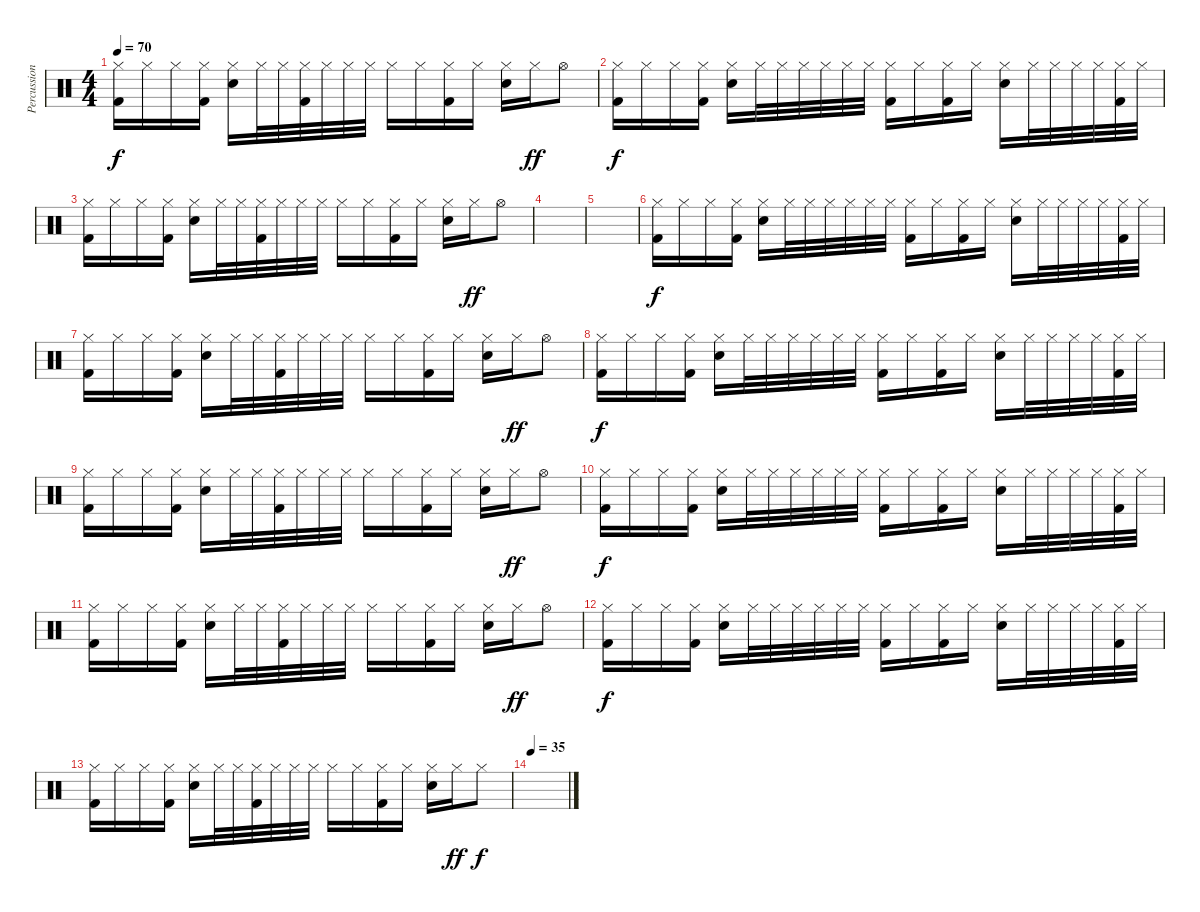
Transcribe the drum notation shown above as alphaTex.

\track ("Percussions" "Percussion") {instrument percussion}
\staff {score}
\articulation defaults
\ts (4 4)
\tempo 70
\clef neutral
\ks c
("Kick (hit) 2" "Hi-Hat (closed)").16{dy f} "Hi-Hat (closed)".16 "Hi-Hat (closed)".16 ("Kick (hit) 2" "Hi-Hat (closed)").16 ("Electric Snare (hit)" "Hi-Hat (closed)").16 "Hi-Hat (closed)".32 "Hi-Hat (closed)".32 ("Kick (hit) 2" "Hi-Hat (closed)").32 "Hi-Hat (closed)".32 "Hi-Hat (closed)".32 "Hi-Hat (closed)".32 "Hi-Hat (closed)".16 "Hi-Hat (closed)".16 ("Kick (hit) 2" "Hi-Hat (closed)").16 "Hi-Hat (closed)".16 ("Electric Snare (hit)" "Hi-Hat (closed)").16 "Hi-Hat (closed)".16{dy ff} "Hi-Hat (open)".8 |
("Kick (hit) 2" "Hi-Hat (closed)").16{dy f} "Hi-Hat (closed)".16 "Hi-Hat (closed)".16 ("Kick (hit) 2" "Hi-Hat (closed)").16 ("Electric Snare (hit)" "Hi-Hat (closed)").16 "Hi-Hat (closed)".32 "Hi-Hat (closed)".32 "Hi-Hat (closed)".32 "Hi-Hat (closed)".32 "Hi-Hat (closed)".32 "Hi-Hat (closed)".32 ("Kick (hit) 2" "Hi-Hat (closed)").16 "Hi-Hat (closed)".16 ("Kick (hit) 2" "Hi-Hat (closed)").16 "Hi-Hat (closed)".16 ("Electric Snare (hit)" "Hi-Hat (closed)").16 "Hi-Hat (closed)".32 "Hi-Hat (closed)".32 "Hi-Hat (closed)".32 "Hi-Hat (closed)".32 ("Kick (hit) 2" "Hi-Hat (closed)").32 "Hi-Hat (closed)".32 |
("Kick (hit) 2" "Hi-Hat (closed)").16 "Hi-Hat (closed)".16 "Hi-Hat (closed)".16 ("Kick (hit) 2" "Hi-Hat (closed)").16 ("Electric Snare (hit)" "Hi-Hat (closed)").16 "Hi-Hat (closed)".32 "Hi-Hat (closed)".32 ("Kick (hit) 2" "Hi-Hat (closed)").32 "Hi-Hat (closed)".32 "Hi-Hat (closed)".32 "Hi-Hat (closed)".32 "Hi-Hat (closed)".16 "Hi-Hat (closed)".16 ("Kick (hit) 2" "Hi-Hat (closed)").16 "Hi-Hat (closed)".16 ("Electric Snare (hit)" "Hi-Hat (closed)").16 "Hi-Hat (closed)".16{dy ff} "Hi-Hat (open)".8 |
\section ("" "")
|
|
\section ("" "")
("Kick (hit) 2" "Hi-Hat (closed)").16{dy f} "Hi-Hat (closed)".16 "Hi-Hat (closed)".16 ("Kick (hit) 2" "Hi-Hat (closed)").16 ("Electric Snare (hit)" "Hi-Hat (closed)").16 "Hi-Hat (closed)".32 "Hi-Hat (closed)".32 "Hi-Hat (closed)".32 "Hi-Hat (closed)".32 "Hi-Hat (closed)".32 "Hi-Hat (closed)".32 ("Kick (hit) 2" "Hi-Hat (closed)").16 "Hi-Hat (closed)".16 ("Kick (hit) 2" "Hi-Hat (closed)").16 "Hi-Hat (closed)".16 ("Electric Snare (hit)" "Hi-Hat (closed)").16 "Hi-Hat (closed)".32 "Hi-Hat (closed)".32 "Hi-Hat (closed)".32 "Hi-Hat (closed)".32 ("Kick (hit) 2" "Hi-Hat (closed)").32 "Hi-Hat (closed)".32 |
("Kick (hit) 2" "Hi-Hat (closed)").16 "Hi-Hat (closed)".16 "Hi-Hat (closed)".16 ("Kick (hit) 2" "Hi-Hat (closed)").16 ("Electric Snare (hit)" "Hi-Hat (closed)").16 "Hi-Hat (closed)".32 "Hi-Hat (closed)".32 ("Kick (hit) 2" "Hi-Hat (closed)").32 "Hi-Hat (closed)".32 "Hi-Hat (closed)".32 "Hi-Hat (closed)".32 "Hi-Hat (closed)".16 "Hi-Hat (closed)".16 ("Kick (hit) 2" "Hi-Hat (closed)").16 "Hi-Hat (closed)".16 ("Electric Snare (hit)" "Hi-Hat (closed)").16 "Hi-Hat (closed)".16{dy ff} "Hi-Hat (open)".8 |
("Kick (hit) 2" "Hi-Hat (closed)").16{dy f} "Hi-Hat (closed)".16 "Hi-Hat (closed)".16 ("Kick (hit) 2" "Hi-Hat (closed)").16 ("Electric Snare (hit)" "Hi-Hat (closed)").16 "Hi-Hat (closed)".32 "Hi-Hat (closed)".32 "Hi-Hat (closed)".32 "Hi-Hat (closed)".32 "Hi-Hat (closed)".32 "Hi-Hat (closed)".32 ("Kick (hit) 2" "Hi-Hat (closed)").16 "Hi-Hat (closed)".16 ("Kick (hit) 2" "Hi-Hat (closed)").16 "Hi-Hat (closed)".16 ("Electric Snare (hit)" "Hi-Hat (closed)").16 "Hi-Hat (closed)".32 "Hi-Hat (closed)".32 "Hi-Hat (closed)".32 "Hi-Hat (closed)".32 ("Kick (hit) 2" "Hi-Hat (closed)").32 "Hi-Hat (closed)".32 |
("Kick (hit) 2" "Hi-Hat (closed)").16 "Hi-Hat (closed)".16 "Hi-Hat (closed)".16 ("Kick (hit) 2" "Hi-Hat (closed)").16 ("Electric Snare (hit)" "Hi-Hat (closed)").16 "Hi-Hat (closed)".32 "Hi-Hat (closed)".32 ("Kick (hit) 2" "Hi-Hat (closed)").32 "Hi-Hat (closed)".32 "Hi-Hat (closed)".32 "Hi-Hat (closed)".32 "Hi-Hat (closed)".16 "Hi-Hat (closed)".16 ("Kick (hit) 2" "Hi-Hat (closed)").16 "Hi-Hat (closed)".16 ("Electric Snare (hit)" "Hi-Hat (closed)").16 "Hi-Hat (closed)".16{dy ff} "Hi-Hat (open)".8 |
("Kick (hit) 2" "Hi-Hat (closed)").16{dy f} "Hi-Hat (closed)".16 "Hi-Hat (closed)".16 ("Kick (hit) 2" "Hi-Hat (closed)").16 ("Electric Snare (hit)" "Hi-Hat (closed)").16 "Hi-Hat (closed)".32 "Hi-Hat (closed)".32 "Hi-Hat (closed)".32 "Hi-Hat (closed)".32 "Hi-Hat (closed)".32 "Hi-Hat (closed)".32 ("Kick (hit) 2" "Hi-Hat (closed)").16 "Hi-Hat (closed)".16 ("Kick (hit) 2" "Hi-Hat (closed)").16 "Hi-Hat (closed)".16 ("Electric Snare (hit)" "Hi-Hat (closed)").16 "Hi-Hat (closed)".32 "Hi-Hat (closed)".32 "Hi-Hat (closed)".32 "Hi-Hat (closed)".32 ("Kick (hit) 2" "Hi-Hat (closed)").32 "Hi-Hat (closed)".32 |
("Kick (hit) 2" "Hi-Hat (closed)").16 "Hi-Hat (closed)".16 "Hi-Hat (closed)".16 ("Kick (hit) 2" "Hi-Hat (closed)").16 ("Electric Snare (hit)" "Hi-Hat (closed)").16 "Hi-Hat (closed)".32 "Hi-Hat (closed)".32 ("Kick (hit) 2" "Hi-Hat (closed)").32 "Hi-Hat (closed)".32 "Hi-Hat (closed)".32 "Hi-Hat (closed)".32 "Hi-Hat (closed)".16 "Hi-Hat (closed)".16 ("Kick (hit) 2" "Hi-Hat (closed)").16 "Hi-Hat (closed)".16 ("Electric Snare (hit)" "Hi-Hat (closed)").16 "Hi-Hat (closed)".16{dy ff} "Hi-Hat (open)".8 |
("Kick (hit) 2" "Hi-Hat (closed)").16{dy f} "Hi-Hat (closed)".16 "Hi-Hat (closed)".16 ("Kick (hit) 2" "Hi-Hat (closed)").16 ("Electric Snare (hit)" "Hi-Hat (closed)").16 "Hi-Hat (closed)".32 "Hi-Hat (closed)".32 "Hi-Hat (closed)".32 "Hi-Hat (closed)".32 "Hi-Hat (closed)".32 "Hi-Hat (closed)".32 ("Kick (hit) 2" "Hi-Hat (closed)").16 "Hi-Hat (closed)".16 ("Kick (hit) 2" "Hi-Hat (closed)").16 "Hi-Hat (closed)".16 ("Electric Snare (hit)" "Hi-Hat (closed)").16 "Hi-Hat (closed)".32 "Hi-Hat (closed)".32 "Hi-Hat (closed)".32 "Hi-Hat (closed)".32 ("Kick (hit) 2" "Hi-Hat (closed)").32 "Hi-Hat (closed)".32 |
("Kick (hit) 2" "Hi-Hat (closed)").16 "Hi-Hat (closed)".16 "Hi-Hat (closed)".16 ("Kick (hit) 2" "Hi-Hat (closed)").16 ("Electric Snare (hit)" "Hi-Hat (closed)").16 "Hi-Hat (closed)".32 "Hi-Hat (closed)".32 ("Kick (hit) 2" "Hi-Hat (closed)").32 "Hi-Hat (closed)".32 "Hi-Hat (closed)".32 "Hi-Hat (closed)".32 "Hi-Hat (closed)".16 "Hi-Hat (closed)".16 ("Kick (hit) 2" "Hi-Hat (closed)").16 "Hi-Hat (closed)".16 ("Electric Snare (hit)" "Hi-Hat (closed)").16 "Hi-Hat (closed)".16{dy ff} "Hi-Hat (closed)".8{dy f} |
\section ("" "")
\tempo 35
